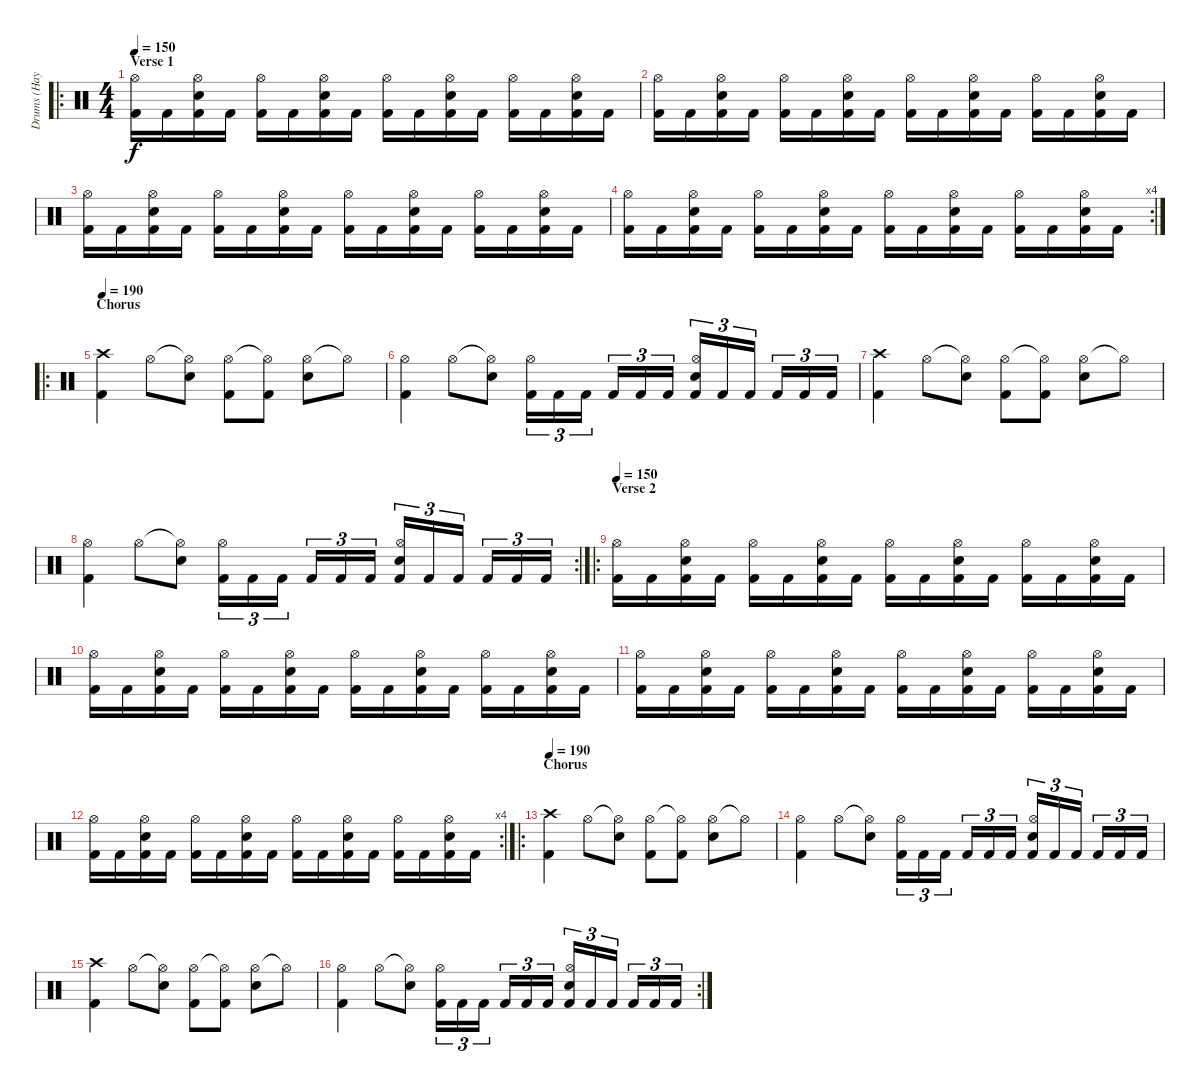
\track ("Drums (Hayden)" "Drums (Hay") {instrument percussion}
\staff {score}
\articulation defaults
\ro
\ts (4 4)
\section ("" "Verse 1")
\tempo 150
\clef neutral
\ks c
("Kick (hit) 2" "Hi-Hat (open)").16{dy f} "Kick (hit) 2".16 ("Kick (hit) 2" "Hi-Hat (open)" "Electric Snare (hit)").16 "Kick (hit) 2".16 ("Kick (hit) 2" "Hi-Hat (open)").16 "Kick (hit) 2".16 ("Kick (hit) 2" "Hi-Hat (open)" "Electric Snare (hit)").16 "Kick (hit) 2".16 ("Kick (hit) 2" "Hi-Hat (open)").16 "Kick (hit) 2".16 ("Kick (hit) 2" "Hi-Hat (open)" "Electric Snare (hit)").16 "Kick (hit) 2".16 ("Kick (hit) 2" "Hi-Hat (open)").16 "Kick (hit) 2".16 ("Kick (hit) 2" "Hi-Hat (open)" "Electric Snare (hit)").16 "Kick (hit) 2".16 |
("Kick (hit) 2" "Hi-Hat (open)").16 "Kick (hit) 2".16 ("Kick (hit) 2" "Hi-Hat (open)" "Electric Snare (hit)").16 "Kick (hit) 2".16 ("Kick (hit) 2" "Hi-Hat (open)").16 "Kick (hit) 2".16 ("Kick (hit) 2" "Hi-Hat (open)" "Electric Snare (hit)").16 "Kick (hit) 2".16 ("Kick (hit) 2" "Hi-Hat (open)").16 "Kick (hit) 2".16 ("Kick (hit) 2" "Hi-Hat (open)" "Electric Snare (hit)").16 "Kick (hit) 2".16 ("Kick (hit) 2" "Hi-Hat (open)").16 "Kick (hit) 2".16 ("Kick (hit) 2" "Hi-Hat (open)" "Electric Snare (hit)").16 "Kick (hit) 2".16 |
("Kick (hit) 2" "Hi-Hat (open)").16 "Kick (hit) 2".16 ("Kick (hit) 2" "Hi-Hat (open)" "Electric Snare (hit)").16 "Kick (hit) 2".16 ("Kick (hit) 2" "Hi-Hat (open)").16 "Kick (hit) 2".16 ("Kick (hit) 2" "Hi-Hat (open)" "Electric Snare (hit)").16 "Kick (hit) 2".16 ("Kick (hit) 2" "Hi-Hat (open)").16 "Kick (hit) 2".16 ("Kick (hit) 2" "Hi-Hat (open)" "Electric Snare (hit)").16 "Kick (hit) 2".16 ("Kick (hit) 2" "Hi-Hat (open)").16 "Kick (hit) 2".16 ("Kick (hit) 2" "Hi-Hat (open)" "Electric Snare (hit)").16 "Kick (hit) 2".16 |
\rc 4
("Kick (hit) 2" "Hi-Hat (open)").16 "Kick (hit) 2".16 ("Kick (hit) 2" "Hi-Hat (open)" "Electric Snare (hit)").16 "Kick (hit) 2".16 ("Kick (hit) 2" "Hi-Hat (open)").16 "Kick (hit) 2".16 ("Kick (hit) 2" "Hi-Hat (open)" "Electric Snare (hit)").16 "Kick (hit) 2".16 ("Kick (hit) 2" "Hi-Hat (open)").16 "Kick (hit) 2".16 ("Kick (hit) 2" "Hi-Hat (open)" "Electric Snare (hit)").16 "Kick (hit) 2".16 ("Kick (hit) 2" "Hi-Hat (open)").16 "Kick (hit) 2".16 ("Kick (hit) 2" "Hi-Hat (open)" "Electric Snare (hit)").16 "Kick (hit) 2".16 |
\ro
\section ("" "Chorus")
\tempo 190
("Crash high (hit)" "Kick (hit) 2").4 "Hi-Hat (open)".8 ("Hi-Hat (open)"{t} "Electric Snare (hit)").8 ("Hi-Hat (open)" "Kick (hit) 2").8 ("Hi-Hat (open)"{t} "Kick (hit) 2").8 ("Hi-Hat (open)" "Electric Snare (hit)").8 "Hi-Hat (open)"{t}.8 |
("Hi-Hat (open)" "Kick (hit) 2").4 "Hi-Hat (open)".8 ("Hi-Hat (open)"{t} "Electric Snare (hit)").8 ("Kick (hit) 2" "Hi-Hat (open)").16{tu (3 2)} "Kick (hit) 2".16{tu (3 2)} "Kick (hit) 2".16{tu (3 2)} "Kick (hit) 2".16{tu (3 2)} "Kick (hit) 2".16{tu (3 2)} "Kick (hit) 2".16{tu (3 2)} ("Kick (hit) 2" "Hi-Hat (open)" "Electric Snare (hit)").16{tu (3 2)} "Kick (hit) 2".16{tu (3 2)} "Kick (hit) 2".16{tu (3 2)} "Kick (hit) 2".16{tu (3 2)} "Kick (hit) 2".16{tu (3 2)} "Kick (hit) 2".16{tu (3 2)} |
("Crash high (hit)" "Kick (hit) 2").4 "Hi-Hat (open)".8 ("Hi-Hat (open)"{t} "Electric Snare (hit)").8 ("Hi-Hat (open)" "Kick (hit) 2").8 ("Hi-Hat (open)"{t} "Kick (hit) 2").8 ("Hi-Hat (open)" "Electric Snare (hit)").8 "Hi-Hat (open)"{t}.8 |
\rc 2
("Hi-Hat (open)" "Kick (hit) 2").4 "Hi-Hat (open)".8 ("Hi-Hat (open)"{t} "Electric Snare (hit)").8 ("Kick (hit) 2" "Hi-Hat (open)").16{tu (3 2)} "Kick (hit) 2".16{tu (3 2)} "Kick (hit) 2".16{tu (3 2)} "Kick (hit) 2".16{tu (3 2)} "Kick (hit) 2".16{tu (3 2)} "Kick (hit) 2".16{tu (3 2)} ("Kick (hit) 2" "Hi-Hat (open)" "Electric Snare (hit)").16{tu (3 2)} "Kick (hit) 2".16{tu (3 2)} "Kick (hit) 2".16{tu (3 2)} "Kick (hit) 2".16{tu (3 2)} "Kick (hit) 2".16{tu (3 2)} "Kick (hit) 2".16{tu (3 2)} |
\ro
\section ("" "Verse 2")
\tempo 150
("Kick (hit) 2" "Hi-Hat (open)").16 "Kick (hit) 2".16 ("Kick (hit) 2" "Hi-Hat (open)" "Electric Snare (hit)").16 "Kick (hit) 2".16 ("Kick (hit) 2" "Hi-Hat (open)").16 "Kick (hit) 2".16 ("Kick (hit) 2" "Hi-Hat (open)" "Electric Snare (hit)").16 "Kick (hit) 2".16 ("Kick (hit) 2" "Hi-Hat (open)").16 "Kick (hit) 2".16 ("Kick (hit) 2" "Hi-Hat (open)" "Electric Snare (hit)").16 "Kick (hit) 2".16 ("Kick (hit) 2" "Hi-Hat (open)").16 "Kick (hit) 2".16 ("Kick (hit) 2" "Hi-Hat (open)" "Electric Snare (hit)").16 "Kick (hit) 2".16 |
("Kick (hit) 2" "Hi-Hat (open)").16 "Kick (hit) 2".16 ("Kick (hit) 2" "Hi-Hat (open)" "Electric Snare (hit)").16 "Kick (hit) 2".16 ("Kick (hit) 2" "Hi-Hat (open)").16 "Kick (hit) 2".16 ("Kick (hit) 2" "Hi-Hat (open)" "Electric Snare (hit)").16 "Kick (hit) 2".16 ("Kick (hit) 2" "Hi-Hat (open)").16 "Kick (hit) 2".16 ("Kick (hit) 2" "Hi-Hat (open)" "Electric Snare (hit)").16 "Kick (hit) 2".16 ("Kick (hit) 2" "Hi-Hat (open)").16 "Kick (hit) 2".16 ("Kick (hit) 2" "Hi-Hat (open)" "Electric Snare (hit)").16 "Kick (hit) 2".16 |
("Kick (hit) 2" "Hi-Hat (open)").16 "Kick (hit) 2".16 ("Kick (hit) 2" "Hi-Hat (open)" "Electric Snare (hit)").16 "Kick (hit) 2".16 ("Kick (hit) 2" "Hi-Hat (open)").16 "Kick (hit) 2".16 ("Kick (hit) 2" "Hi-Hat (open)" "Electric Snare (hit)").16 "Kick (hit) 2".16 ("Kick (hit) 2" "Hi-Hat (open)").16 "Kick (hit) 2".16 ("Kick (hit) 2" "Hi-Hat (open)" "Electric Snare (hit)").16 "Kick (hit) 2".16 ("Kick (hit) 2" "Hi-Hat (open)").16 "Kick (hit) 2".16 ("Kick (hit) 2" "Hi-Hat (open)" "Electric Snare (hit)").16 "Kick (hit) 2".16 |
\rc 4
("Kick (hit) 2" "Hi-Hat (open)").16 "Kick (hit) 2".16 ("Kick (hit) 2" "Hi-Hat (open)" "Electric Snare (hit)").16 "Kick (hit) 2".16 ("Kick (hit) 2" "Hi-Hat (open)").16 "Kick (hit) 2".16 ("Kick (hit) 2" "Hi-Hat (open)" "Electric Snare (hit)").16 "Kick (hit) 2".16 ("Kick (hit) 2" "Hi-Hat (open)").16 "Kick (hit) 2".16 ("Kick (hit) 2" "Hi-Hat (open)" "Electric Snare (hit)").16 "Kick (hit) 2".16 ("Kick (hit) 2" "Hi-Hat (open)").16 "Kick (hit) 2".16 ("Kick (hit) 2" "Hi-Hat (open)" "Electric Snare (hit)").16 "Kick (hit) 2".16 |
\ro
\section ("" "Chorus")
\tempo 190
("Crash high (hit)" "Kick (hit) 2").4 "Hi-Hat (open)".8 ("Hi-Hat (open)"{t} "Electric Snare (hit)").8 ("Hi-Hat (open)" "Kick (hit) 2").8 ("Hi-Hat (open)"{t} "Kick (hit) 2").8 ("Hi-Hat (open)" "Electric Snare (hit)").8 "Hi-Hat (open)"{t}.8 |
("Hi-Hat (open)" "Kick (hit) 2").4 "Hi-Hat (open)".8 ("Hi-Hat (open)"{t} "Electric Snare (hit)").8 ("Kick (hit) 2" "Hi-Hat (open)").16{tu (3 2)} "Kick (hit) 2".16{tu (3 2)} "Kick (hit) 2".16{tu (3 2)} "Kick (hit) 2".16{tu (3 2)} "Kick (hit) 2".16{tu (3 2)} "Kick (hit) 2".16{tu (3 2)} ("Kick (hit) 2" "Hi-Hat (open)" "Electric Snare (hit)").16{tu (3 2)} "Kick (hit) 2".16{tu (3 2)} "Kick (hit) 2".16{tu (3 2)} "Kick (hit) 2".16{tu (3 2)} "Kick (hit) 2".16{tu (3 2)} "Kick (hit) 2".16{tu (3 2)} |
("Crash high (hit)" "Kick (hit) 2").4 "Hi-Hat (open)".8 ("Hi-Hat (open)"{t} "Electric Snare (hit)").8 ("Hi-Hat (open)" "Kick (hit) 2").8 ("Hi-Hat (open)"{t} "Kick (hit) 2").8 ("Hi-Hat (open)" "Electric Snare (hit)").8 "Hi-Hat (open)"{t}.8 |
\rc 2
("Hi-Hat (open)" "Kick (hit) 2").4 "Hi-Hat (open)".8 ("Hi-Hat (open)"{t} "Electric Snare (hit)").8 ("Kick (hit) 2" "Hi-Hat (open)").16{tu (3 2)} "Kick (hit) 2".16{tu (3 2)} "Kick (hit) 2".16{tu (3 2)} "Kick (hit) 2".16{tu (3 2)} "Kick (hit) 2".16{tu (3 2)} "Kick (hit) 2".16{tu (3 2)} ("Kick (hit) 2" "Hi-Hat (open)" "Electric Snare (hit)").16{tu (3 2)} "Kick (hit) 2".16{tu (3 2)} "Kick (hit) 2".16{tu (3 2)} "Kick (hit) 2".16{tu (3 2)} "Kick (hit) 2".16{tu (3 2)} "Kick (hit) 2".16{tu (3 2)}
